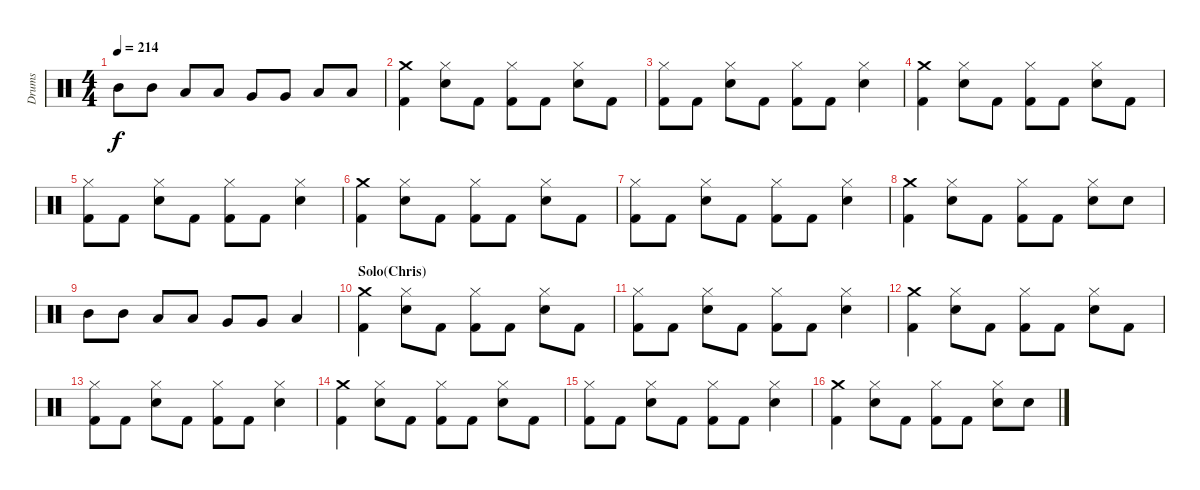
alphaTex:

\track ("Drums" "Drums") {instrument percussion}
\staff {score}
\articulation defaults
\ts (4 4)
\tempo 214
\clef neutral
\ks c "Mid Tom (hit)".8{dy f} "Mid Tom (hit)".8 "Low Tom (hit)".8 "Low Tom (hit)".8 "Very Low Tom (hit)".8 "Very Low Tom (hit)".8 "Low Floor Tom (hit)".8 "Low Floor Tom (hit)".8
|
("Crash medium (hit)" "Kick (hit) 2").4 ("Hi-Hat (closed)" "Electric Snare (hit)").8 "Kick (hit) 2".8 ("Hi-Hat (closed)" "Kick (hit) 2").8 "Kick (hit) 2".8 ("Hi-Hat (closed)" "Electric Snare (hit)").8 "Kick (hit) 2".8 |
("Hi-Hat (closed)" "Kick (hit) 2").8 "Kick (hit) 2".8 ("Hi-Hat (closed)" "Electric Snare (hit)").8 "Kick (hit) 2".8 ("Hi-Hat (closed)" "Kick (hit) 2").8 "Kick (hit) 2".8 ("Hi-Hat (closed)" "Electric Snare (hit)").4 |
("Crash medium (hit)" "Kick (hit) 2").4 ("Hi-Hat (closed)" "Electric Snare (hit)").8 "Kick (hit) 2".8 ("Hi-Hat (closed)" "Kick (hit) 2").8 "Kick (hit) 2".8 ("Hi-Hat (closed)" "Electric Snare (hit)").8 "Kick (hit) 2".8 |
("Hi-Hat (closed)" "Kick (hit) 2").8 "Kick (hit) 2".8 ("Hi-Hat (closed)" "Electric Snare (hit)").8 "Kick (hit) 2".8 ("Hi-Hat (closed)" "Kick (hit) 2").8 "Kick (hit) 2".8 ("Hi-Hat (closed)" "Electric Snare (hit)").4 |
("Crash medium (hit)" "Kick (hit) 2").4 ("Hi-Hat (closed)" "Electric Snare (hit)").8 "Kick (hit) 2".8 ("Hi-Hat (closed)" "Kick (hit) 2").8 "Kick (hit) 2".8 ("Hi-Hat (closed)" "Electric Snare (hit)").8 "Kick (hit) 2".8 |
("Hi-Hat (closed)" "Kick (hit) 2").8 "Kick (hit) 2".8 ("Hi-Hat (closed)" "Electric Snare (hit)").8 "Kick (hit) 2".8 ("Hi-Hat (closed)" "Kick (hit) 2").8 "Kick (hit) 2".8 ("Hi-Hat (closed)" "Electric Snare (hit)").4 |
("Crash medium (hit)" "Kick (hit) 2").4 ("Hi-Hat (closed)" "Electric Snare (hit)").8 "Kick (hit) 2".8 ("Hi-Hat (closed)" "Kick (hit) 2").8 "Kick (hit) 2".8 ("Hi-Hat (closed)" "Electric Snare (hit)").8 "Electric Snare (hit)".8 |
"Mid Tom (hit)".8 "Mid Tom (hit)".8 "Low Tom (hit)".8 "Low Tom (hit)".8 "Very Low Tom (hit)".8 "Very Low Tom (hit)".8 "Low Floor Tom (hit)".4 |
\section ("" "Solo(Chris)")
("Crash medium (hit)" "Kick (hit) 2").4 ("Hi-Hat (closed)" "Electric Snare (hit)").8 "Kick (hit) 2".8 ("Hi-Hat (closed)" "Kick (hit) 2").8 "Kick (hit) 2".8 ("Hi-Hat (closed)" "Electric Snare (hit)").8 "Kick (hit) 2".8 |
("Hi-Hat (closed)" "Kick (hit) 2").8 "Kick (hit) 2".8 ("Hi-Hat (closed)" "Electric Snare (hit)").8 "Kick (hit) 2".8 ("Hi-Hat (closed)" "Kick (hit) 2").8 "Kick (hit) 2".8 ("Hi-Hat (closed)" "Electric Snare (hit)").4 |
("Crash medium (hit)" "Kick (hit) 2").4 ("Hi-Hat (closed)" "Electric Snare (hit)").8 "Kick (hit) 2".8 ("Hi-Hat (closed)" "Kick (hit) 2").8 "Kick (hit) 2".8 ("Hi-Hat (closed)" "Electric Snare (hit)").8 "Kick (hit) 2".8 |
("Hi-Hat (closed)" "Kick (hit) 2").8 "Kick (hit) 2".8 ("Hi-Hat (closed)" "Electric Snare (hit)").8 "Kick (hit) 2".8 ("Hi-Hat (closed)" "Kick (hit) 2").8 "Kick (hit) 2".8 ("Hi-Hat (closed)" "Electric Snare (hit)").4 |
("Crash medium (hit)" "Kick (hit) 2").4 ("Hi-Hat (closed)" "Electric Snare (hit)").8 "Kick (hit) 2".8 ("Hi-Hat (closed)" "Kick (hit) 2").8 "Kick (hit) 2".8 ("Hi-Hat (closed)" "Electric Snare (hit)").8 "Kick (hit) 2".8 |
("Hi-Hat (closed)" "Kick (hit) 2").8 "Kick (hit) 2".8 ("Hi-Hat (closed)" "Electric Snare (hit)").8 "Kick (hit) 2".8 ("Hi-Hat (closed)" "Kick (hit) 2").8 "Kick (hit) 2".8 ("Hi-Hat (closed)" "Electric Snare (hit)").4 |
("Crash medium (hit)" "Kick (hit) 2").4 ("Hi-Hat (closed)" "Electric Snare (hit)").8 "Kick (hit) 2".8 ("Hi-Hat (closed)" "Kick (hit) 2").8 "Kick (hit) 2".8 ("Hi-Hat (closed)" "Electric Snare (hit)").8 "Electric Snare (hit)".8
